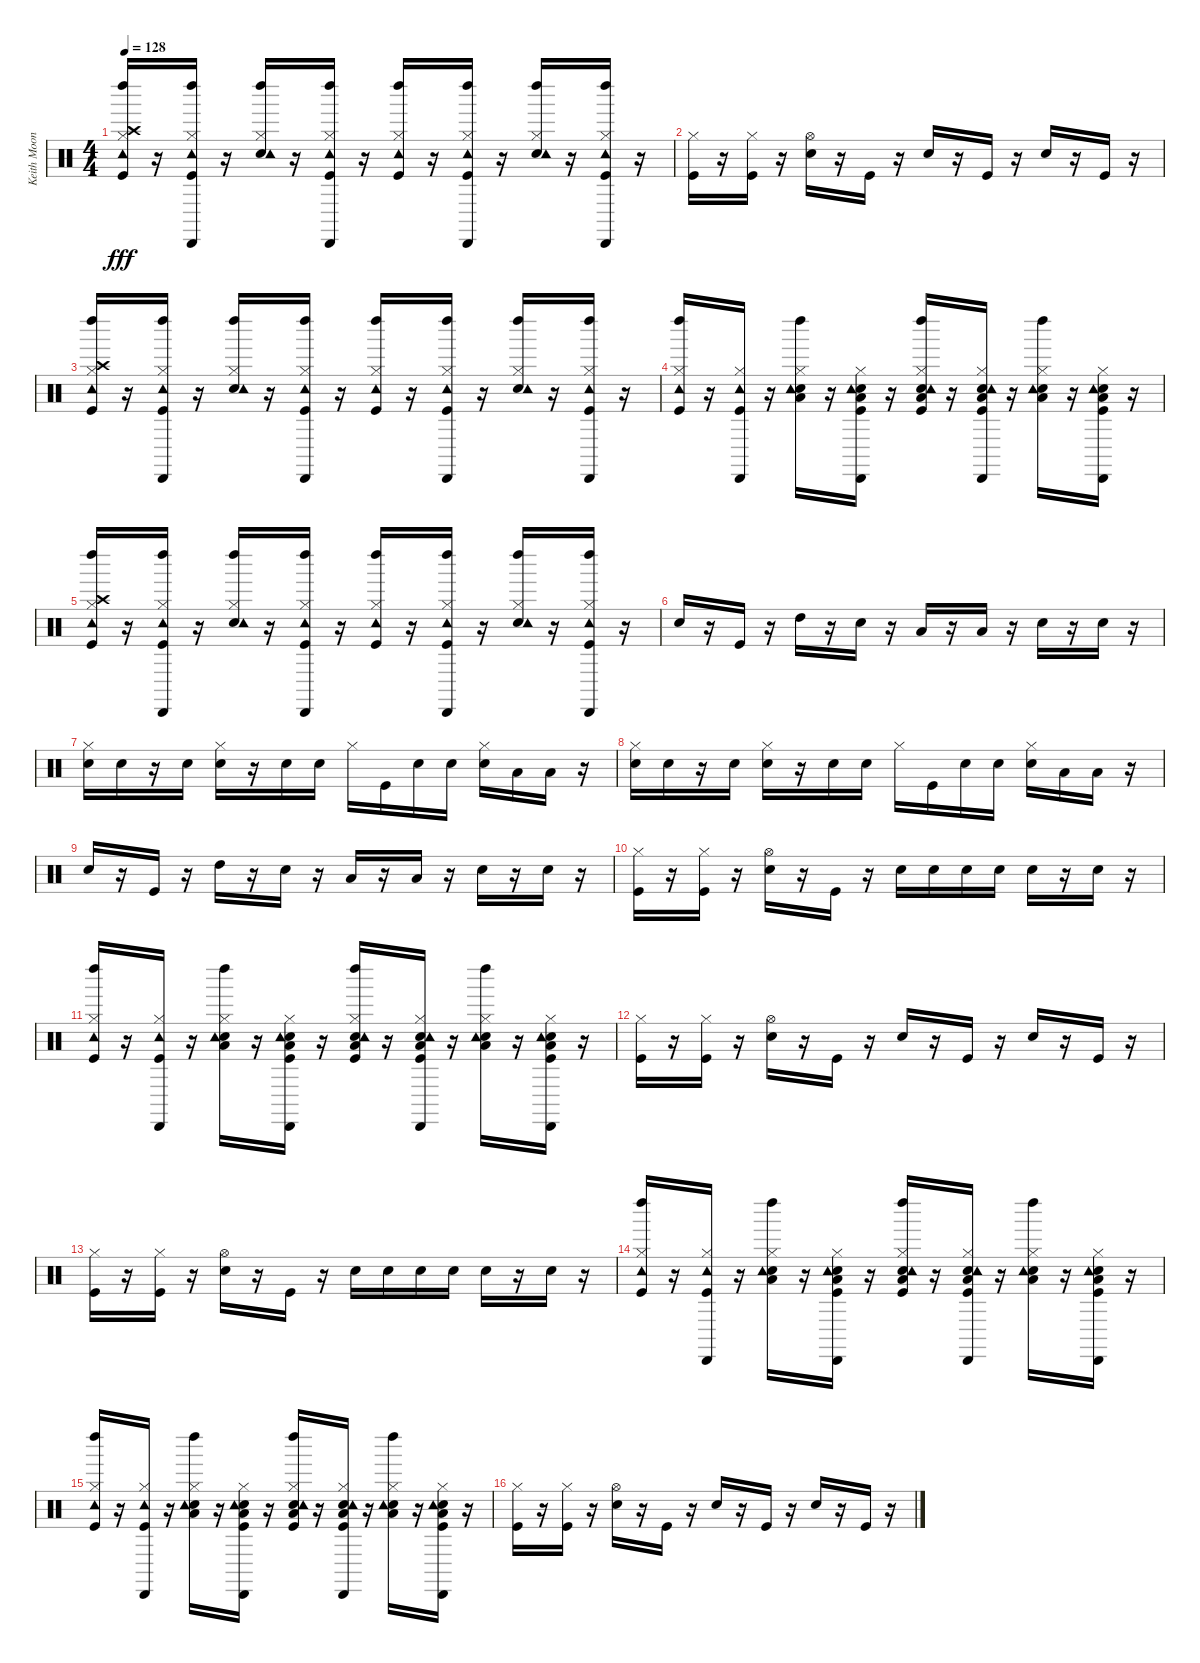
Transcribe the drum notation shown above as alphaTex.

\track ("Keith Moon" "Keith Moon") {instrument percussion}
\staff {score}
\articulation defaults
\ts (4 4)
\tempo 128
\clef neutral
\ks c
("Kick (hit)" "Hi-Hat (closed)" "Crash high (hit)" "Tambourine (hit)" "Left Maraca (hit)").16{dy fff} r.16 ("Kick (hit)" "Hi-Hat (closed)" "Tambourine (hit)" "Left Maraca (hit)" "Cabasa (hit)").16 r.16 ("Snare (hit) 2" "Hi-Hat (closed)" "Tambourine (hit)" "Left Maraca (hit)").16 r.16 ("Kick (hit)" "Hi-Hat (closed)" "Tambourine (hit)" "Left Maraca (hit)" "Cabasa (hit)").16 r.16 ("Kick (hit)" "Hi-Hat (closed)" "Tambourine (hit)" "Left Maraca (hit)").16 r.16 ("Kick (hit)" "Hi-Hat (closed)" "Tambourine (hit)" "Left Maraca (hit)" "Cabasa (hit)").16 r.16 ("Snare (hit) 2" "Hi-Hat (closed)" "Tambourine (hit)" "Left Maraca (hit)").16 r.16 ("Kick (hit)" "Hi-Hat (closed)" "Tambourine (hit)" "Left Maraca (hit)" "Cabasa (hit)").16 r.16 |
("Kick (hit)" "Hi-Hat (closed)").16 r.16 ("Kick (hit)" "Hi-Hat (closed)").16 r.16 ("Snare (hit) 2" "Hi-Hat (open)").16 r.16 "Kick (hit)".16 r.16 "Snare (hit) 2".16 r.16 "Kick (hit)".16 r.16 "Snare (hit) 2".16 r.16 "Kick (hit)".16 r.16 |
("Kick (hit)" "Hi-Hat (closed)" "Crash high (hit)" "Tambourine (hit)" "Left Maraca (hit)").16 r.16 ("Kick (hit)" "Hi-Hat (closed)" "Tambourine (hit)" "Left Maraca (hit)" "Cabasa (hit)").16 r.16 ("Snare (hit) 2" "Hi-Hat (closed)" "Tambourine (hit)" "Left Maraca (hit)").16 r.16 ("Kick (hit)" "Hi-Hat (closed)" "Tambourine (hit)" "Left Maraca (hit)" "Cabasa (hit)").16 r.16 ("Kick (hit)" "Hi-Hat (closed)" "Tambourine (hit)" "Left Maraca (hit)").16 r.16 ("Kick (hit)" "Hi-Hat (closed)" "Tambourine (hit)" "Left Maraca (hit)" "Cabasa (hit)").16 r.16 ("Snare (hit) 2" "Hi-Hat (closed)" "Tambourine (hit)" "Left Maraca (hit)").16 r.16 ("Kick (hit)" "Hi-Hat (closed)" "Tambourine (hit)" "Left Maraca (hit)" "Cabasa (hit)").16 r.16 |
("Kick (hit)" "Hi-Hat (closed)" "Tambourine (hit)" "Left Maraca (hit)").16 r.16 ("Kick (hit)" "Hi-Hat (closed)" "Tambourine (hit)" "Cabasa (hit)").16 r.16 ("Snare (hit) 2" "Hi-Hat (closed)" "Low Floor Tom (hit)" "Tambourine (hit)" "Left Maraca (hit)").16 r.16 ("Kick (hit)" "Snare (hit) 2" "Hi-Hat (closed)" "Low Floor Tom (hit)" "Tambourine (hit)" "Cabasa (hit)").16 r.16 ("Kick (hit)" "Snare (hit) 2" "Hi-Hat (closed)" "Low Floor Tom (hit)" "Tambourine (hit)" "Left Maraca (hit)").16 r.16 ("Kick (hit)" "Snare (hit) 2" "Hi-Hat (closed)" "Low Floor Tom (hit)" "Tambourine (hit)" "Cabasa (hit)").16 r.16 ("Snare (hit) 2" "Hi-Hat (closed)" "Low Floor Tom (hit)" "Tambourine (hit)" "Left Maraca (hit)").16 r.16 ("Kick (hit)" "Snare (hit) 2" "Hi-Hat (closed)" "Low Floor Tom (hit)" "Tambourine (hit)" "Cabasa (hit)").16 r.16 |
("Kick (hit)" "Hi-Hat (closed)" "Crash high (hit)" "Tambourine (hit)" "Left Maraca (hit)").16 r.16 ("Kick (hit)" "Hi-Hat (closed)" "Tambourine (hit)" "Left Maraca (hit)" "Cabasa (hit)").16 r.16 ("Snare (hit) 2" "Hi-Hat (closed)" "Tambourine (hit)" "Left Maraca (hit)").16 r.16 ("Kick (hit)" "Hi-Hat (closed)" "Tambourine (hit)" "Left Maraca (hit)" "Cabasa (hit)").16 r.16 ("Kick (hit)" "Hi-Hat (closed)" "Tambourine (hit)" "Left Maraca (hit)").16 r.16 ("Kick (hit)" "Hi-Hat (closed)" "Tambourine (hit)" "Left Maraca (hit)" "Cabasa (hit)").16 r.16 ("Snare (hit) 2" "Hi-Hat (closed)" "Tambourine (hit)" "Left Maraca (hit)").16 r.16 ("Kick (hit)" "Hi-Hat (closed)" "Tambourine (hit)" "Left Maraca (hit)" "Cabasa (hit)").16 r.16 |
"Snare (hit) 2".16 r.16 "Kick (hit)".16 r.16 "High Tom (hit)".16 r.16 "Snare (hit) 2".16 r.16 "Low Tom (hit)".16 r.16 "Low Tom (hit)".16 r.16 "Snare (hit) 2".16 r.16 "Snare (hit) 2".16 r.16 |
("Snare (hit) 2" "Hi-Hat (closed)").16 "Snare (hit) 2".16 r.16 "Snare (hit) 2".16 ("Snare (hit) 2" "Hi-Hat (closed)").16 r.16 "Snare (hit) 2".16 "Snare (hit) 2".16 "Hi-Hat (closed)".16 "Kick (hit)".16 "Snare (hit) 2".16 "Snare (hit) 2".16 ("Snare (hit) 2" "Hi-Hat (closed)").16 "Low Tom (hit)".16 "Low Floor Tom (hit)".16 r.16 |
("Snare (hit) 2" "Hi-Hat (closed)").16 "Snare (hit) 2".16 r.16 "Snare (hit) 2".16 ("Snare (hit) 2" "Hi-Hat (closed)").16 r.16 "Snare (hit) 2".16 "Snare (hit) 2".16 "Hi-Hat (closed)".16 "Kick (hit)".16 "Snare (hit) 2".16 "Snare (hit) 2".16 ("Snare (hit) 2" "Hi-Hat (closed)").16 "Low Tom (hit)".16 "Low Floor Tom (hit)".16 r.16 |
"Snare (hit) 2".16 r.16 "Kick (hit)".16 r.16 "High Tom (hit)".16 r.16 "Snare (hit) 2".16 r.16 "Low Tom (hit)".16 r.16 "Low Tom (hit)".16 r.16 "Snare (hit) 2".16 r.16 "Snare (hit) 2".16 r.16 |
("Kick (hit)" "Hi-Hat (closed)").16 r.16 ("Kick (hit)" "Hi-Hat (closed)").16 r.16 ("Snare (hit) 2" "Hi-Hat (open)").16 r.16 "Kick (hit)".16 r.16 "Snare (hit) 2".16 "Snare (hit) 2".16 "Snare (hit) 2".16 "Snare (hit) 2".16 "Snare (hit) 2".16 r.16 "Snare (hit) 2".16 r.16 |
("Kick (hit)" "Hi-Hat (closed)" "Tambourine (hit)" "Left Maraca (hit)").16 r.16 ("Kick (hit)" "Hi-Hat (closed)" "Tambourine (hit)" "Cabasa (hit)").16 r.16 ("Snare (hit) 2" "Hi-Hat (closed)" "Low Floor Tom (hit)" "Tambourine (hit)" "Left Maraca (hit)").16 r.16 ("Kick (hit)" "Snare (hit) 2" "Hi-Hat (closed)" "Low Floor Tom (hit)" "Tambourine (hit)" "Cabasa (hit)").16 r.16 ("Kick (hit)" "Snare (hit) 2" "Hi-Hat (closed)" "Low Floor Tom (hit)" "Tambourine (hit)" "Left Maraca (hit)").16 r.16 ("Kick (hit)" "Snare (hit) 2" "Hi-Hat (closed)" "Low Floor Tom (hit)" "Tambourine (hit)" "Cabasa (hit)").16 r.16 ("Snare (hit) 2" "Hi-Hat (closed)" "Low Floor Tom (hit)" "Tambourine (hit)" "Left Maraca (hit)").16 r.16 ("Kick (hit)" "Snare (hit) 2" "Hi-Hat (closed)" "Low Floor Tom (hit)" "Tambourine (hit)" "Cabasa (hit)").16 r.16 |
("Kick (hit)" "Hi-Hat (closed)").16 r.16 ("Kick (hit)" "Hi-Hat (closed)").16 r.16 ("Snare (hit) 2" "Hi-Hat (open)").16 r.16 "Kick (hit)".16 r.16 "Snare (hit) 2".16 r.16 "Kick (hit)".16 r.16 "Snare (hit) 2".16 r.16 "Kick (hit)".16 r.16 |
("Kick (hit)" "Hi-Hat (closed)").16 r.16 ("Kick (hit)" "Hi-Hat (closed)").16 r.16 ("Snare (hit) 2" "Hi-Hat (open)").16 r.16 "Kick (hit)".16 r.16 "Snare (hit) 2".16 "Snare (hit) 2".16 "Snare (hit) 2".16 "Snare (hit) 2".16 "Snare (hit) 2".16 r.16 "Snare (hit) 2".16 r.16 |
("Kick (hit)" "Hi-Hat (closed)" "Tambourine (hit)" "Left Maraca (hit)").16 r.16 ("Kick (hit)" "Hi-Hat (closed)" "Tambourine (hit)" "Cabasa (hit)").16 r.16 ("Snare (hit) 2" "Hi-Hat (closed)" "Low Floor Tom (hit)" "Tambourine (hit)" "Left Maraca (hit)").16 r.16 ("Kick (hit)" "Snare (hit) 2" "Hi-Hat (closed)" "Low Floor Tom (hit)" "Tambourine (hit)" "Cabasa (hit)").16 r.16 ("Kick (hit)" "Snare (hit) 2" "Hi-Hat (closed)" "Low Floor Tom (hit)" "Tambourine (hit)" "Left Maraca (hit)").16 r.16 ("Kick (hit)" "Snare (hit) 2" "Hi-Hat (closed)" "Low Floor Tom (hit)" "Tambourine (hit)" "Cabasa (hit)").16 r.16 ("Snare (hit) 2" "Hi-Hat (closed)" "Low Floor Tom (hit)" "Tambourine (hit)" "Left Maraca (hit)").16 r.16 ("Kick (hit)" "Snare (hit) 2" "Hi-Hat (closed)" "Low Floor Tom (hit)" "Tambourine (hit)" "Cabasa (hit)").16 r.16 |
("Kick (hit)" "Hi-Hat (closed)" "Tambourine (hit)" "Left Maraca (hit)").16 r.16 ("Kick (hit)" "Hi-Hat (closed)" "Tambourine (hit)" "Cabasa (hit)").16 r.16 ("Snare (hit) 2" "Hi-Hat (closed)" "Low Floor Tom (hit)" "Tambourine (hit)" "Left Maraca (hit)").16 r.16 ("Kick (hit)" "Snare (hit) 2" "Hi-Hat (closed)" "Low Floor Tom (hit)" "Tambourine (hit)" "Cabasa (hit)").16 r.16 ("Kick (hit)" "Snare (hit) 2" "Hi-Hat (closed)" "Low Floor Tom (hit)" "Tambourine (hit)" "Left Maraca (hit)").16 r.16 ("Kick (hit)" "Snare (hit) 2" "Hi-Hat (closed)" "Low Floor Tom (hit)" "Tambourine (hit)" "Cabasa (hit)").16 r.16 ("Snare (hit) 2" "Hi-Hat (closed)" "Low Floor Tom (hit)" "Tambourine (hit)" "Left Maraca (hit)").16 r.16 ("Kick (hit)" "Snare (hit) 2" "Hi-Hat (closed)" "Low Floor Tom (hit)" "Tambourine (hit)" "Cabasa (hit)").16 r.16 |
("Kick (hit)" "Hi-Hat (closed)").16 r.16 ("Kick (hit)" "Hi-Hat (closed)").16 r.16 ("Snare (hit) 2" "Hi-Hat (open)").16 r.16 "Kick (hit)".16 r.16 "Snare (hit) 2".16 r.16 "Kick (hit)".16 r.16 "Snare (hit) 2".16 r.16 "Kick (hit)".16 r.16
